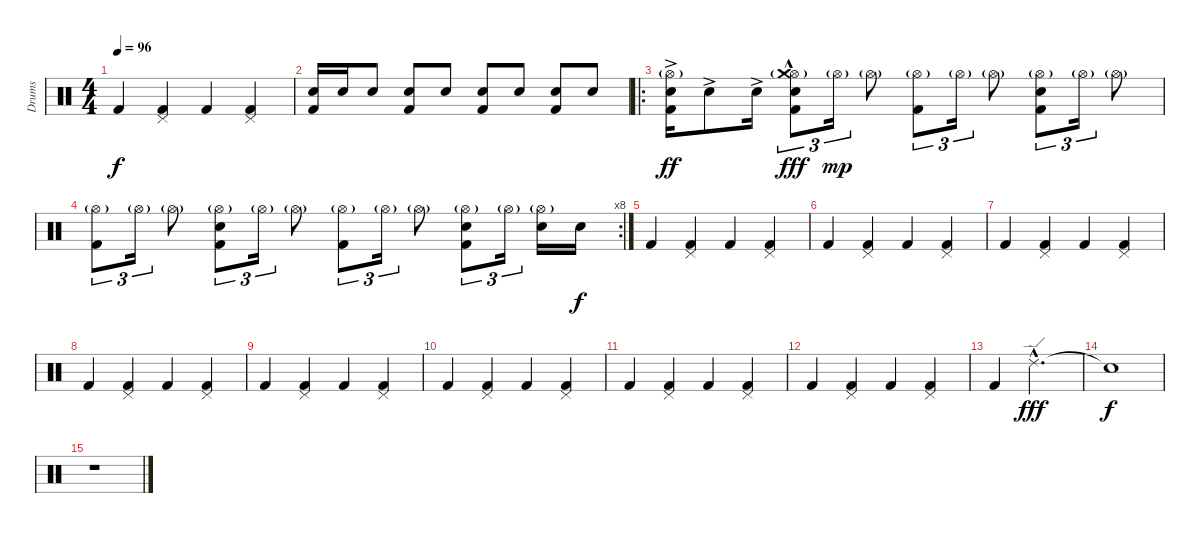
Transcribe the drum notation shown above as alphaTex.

\track ("Drums" "Drums") {instrument percussion}
\staff {score}
\articulation defaults
\ts (4 4)
\tempo 96
\clef neutral
\ks c "Kick (hit) 2".4{dy f}
("Pedal Hi-Hat (hit)" "Kick (hit) 2").4 "Kick (hit) 2".4 ("Pedal Hi-Hat (hit)" "Kick (hit) 2").4 |
("Electric Snare (hit)" "Kick (hit) 2").16 "Electric Snare (hit)".16 "Electric Snare (hit)".8 ("Electric Snare (hit)" "Kick (hit) 2").8 "Electric Snare (hit)".8 ("Electric Snare (hit)" "Kick (hit) 2").8 "Electric Snare (hit)".8 ("Electric Snare (hit)" "Kick (hit) 2").8 "Electric Snare (hit)".8 |
\ro
("Hi-Hat (open)"{g} "Electric Snare (hit)"{ac} "Kick (hit) 2").16{dy ff} "Electric Snare (hit)"{ac}.8 "Electric Snare (hit)"{ac}.16 ("Hi-Hat (open)"{g} "Crash medium (hit)"{hac} "Electric Snare (hit)"{hac} "Kick (hit) 2").8{tu (3 2) dy fff} "Hi-Hat (open)"{g}.16{tu (3 2) dy mp} "Hi-Hat (open)"{g}.8 ("Hi-Hat (open)"{g} "Kick (hit) 2").8{tu (3 2)} "Hi-Hat (open)"{g}.16{tu (3 2)} "Hi-Hat (open)"{g}.8 ("Hi-Hat (open)"{g} "Electric Snare (hit)" "Kick (hit) 2").8{tu (3 2)} "Hi-Hat (open)"{g}.16{tu (3 2)} "Hi-Hat (open)"{g}.8 |
\rc 8
("Hi-Hat (open)"{g} "Kick (hit) 2").8{tu (3 2)} "Hi-Hat (open)"{g}.16{tu (3 2)} "Hi-Hat (open)"{g}.8 ("Hi-Hat (open)"{g} "Electric Snare (hit)" "Kick (hit) 2").8{tu (3 2)} "Hi-Hat (open)"{g}.16{tu (3 2)} "Hi-Hat (open)"{g}.8 ("Hi-Hat (open)"{g} "Kick (hit) 2").8{tu (3 2)} "Hi-Hat (open)"{g}.16{tu (3 2)} "Hi-Hat (open)"{g}.8 ("Hi-Hat (open)"{g} "Electric Snare (hit)" "Kick (hit) 2").8{tu (3 2)} "Hi-Hat (open)"{g}.16{tu (3 2) beam splitsecondary} ("Hi-Hat (open)"{g} "Electric Snare (hit)").16 "Electric Snare (hit)".16{dy f} |
"Kick (hit) 2".4 ("Pedal Hi-Hat (hit)" "Kick (hit) 2").4 "Kick (hit) 2".4 ("Pedal Hi-Hat (hit)" "Kick (hit) 2").4 |
"Kick (hit) 2".4 ("Pedal Hi-Hat (hit)" "Kick (hit) 2").4 "Kick (hit) 2".4 ("Pedal Hi-Hat (hit)" "Kick (hit) 2").4 |
"Kick (hit) 2".4 ("Pedal Hi-Hat (hit)" "Kick (hit) 2").4 "Kick (hit) 2".4 ("Pedal Hi-Hat (hit)" "Kick (hit) 2").4 |
"Kick (hit) 2".4 ("Pedal Hi-Hat (hit)" "Kick (hit) 2").4 "Kick (hit) 2".4 ("Pedal Hi-Hat (hit)" "Kick (hit) 2").4 |
"Kick (hit) 2".4 ("Pedal Hi-Hat (hit)" "Kick (hit) 2").4 "Kick (hit) 2".4 ("Pedal Hi-Hat (hit)" "Kick (hit) 2").4 |
"Kick (hit) 2".4 ("Pedal Hi-Hat (hit)" "Kick (hit) 2").4 "Kick (hit) 2".4 ("Pedal Hi-Hat (hit)" "Kick (hit) 2").4 |
"Kick (hit) 2".4 ("Pedal Hi-Hat (hit)" "Kick (hit) 2").4 "Kick (hit) 2".4 ("Pedal Hi-Hat (hit)" "Kick (hit) 2").4 |
"Kick (hit) 2".4 ("Pedal Hi-Hat (hit)" "Kick (hit) 2").4 "Kick (hit) 2".4 ("Pedal Hi-Hat (hit)" "Kick (hit) 2").4 |
"Kick (hit) 2".4 "Ride (edge) 2"{hac}.2{d dy fff} |
"Snare (hit)"{t}.1{dy f} |
r.1
